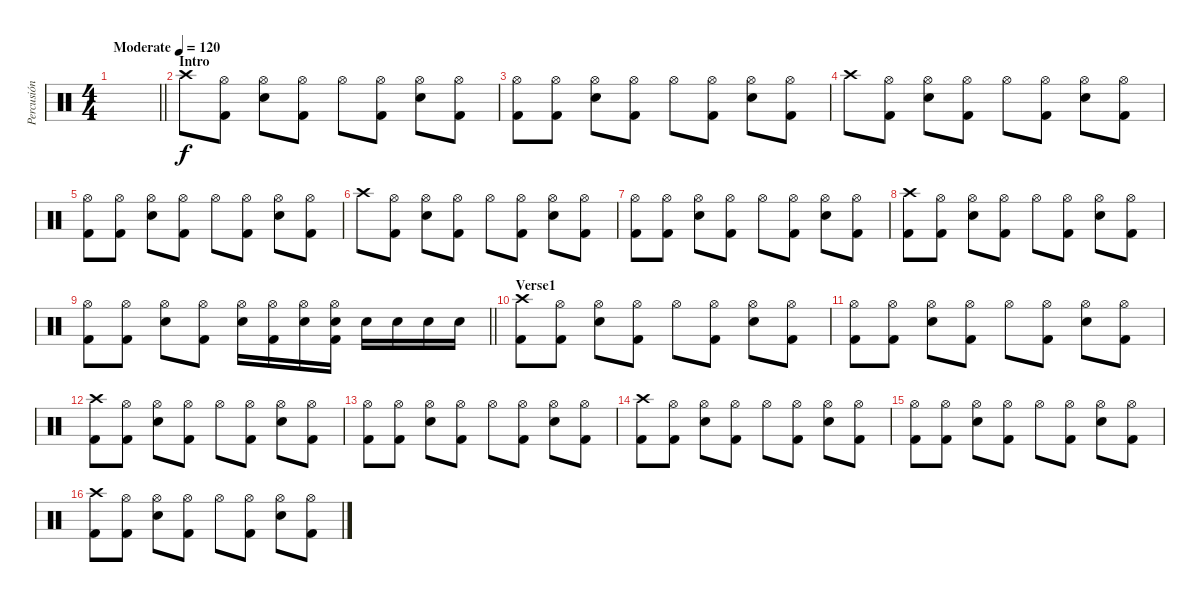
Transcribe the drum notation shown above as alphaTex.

\track ("Percusión" "Percusión") {instrument percussion}
\staff {score}
\articulation defaults
\ts (4 4)
\tempo (120 "Moderate")
\clef neutral
\barLineRight lightlight
\ks c
|
\section ("" "Intro")
"Crash high (hit)".8 ("Hi-Hat (open)" "Kick (hit) 2").8 ("Hi-Hat (open)" "Snare (hit) 2").8 ("Hi-Hat (open)" "Kick (hit) 2").8 "Hi-Hat (open)".8 ("Hi-Hat (open)" "Kick (hit) 2").8 ("Hi-Hat (open)" "Snare (hit) 2").8 ("Hi-Hat (open)" "Kick (hit) 2").8 |
("Hi-Hat (open)" "Kick (hit) 2").8 ("Hi-Hat (open)" "Kick (hit) 2").8 ("Hi-Hat (open)" "Snare (hit) 2").8 ("Hi-Hat (open)" "Kick (hit) 2").8 "Hi-Hat (open)".8 ("Hi-Hat (open)" "Kick (hit) 2").8 ("Hi-Hat (open)" "Snare (hit) 2").8 ("Hi-Hat (open)" "Kick (hit) 2").8 |
"Crash high (hit)".8 ("Hi-Hat (open)" "Kick (hit) 2").8 ("Hi-Hat (open)" "Snare (hit) 2").8 ("Hi-Hat (open)" "Kick (hit) 2").8 "Hi-Hat (open)".8 ("Hi-Hat (open)" "Kick (hit) 2").8 ("Hi-Hat (open)" "Snare (hit) 2").8 ("Hi-Hat (open)" "Kick (hit) 2").8 |
("Hi-Hat (open)" "Kick (hit) 2").8 ("Hi-Hat (open)" "Kick (hit) 2").8 ("Hi-Hat (open)" "Snare (hit) 2").8 ("Hi-Hat (open)" "Kick (hit) 2").8 "Hi-Hat (open)".8 ("Hi-Hat (open)" "Kick (hit) 2").8 ("Hi-Hat (open)" "Snare (hit) 2").8 ("Hi-Hat (open)" "Kick (hit) 2").8 |
"Crash high (hit)".8 ("Hi-Hat (open)" "Kick (hit) 2").8 ("Hi-Hat (open)" "Snare (hit) 2").8 ("Hi-Hat (open)" "Kick (hit) 2").8 "Hi-Hat (open)".8 ("Hi-Hat (open)" "Kick (hit) 2").8 ("Hi-Hat (open)" "Snare (hit) 2").8 ("Hi-Hat (open)" "Kick (hit) 2").8 |
("Hi-Hat (open)" "Kick (hit) 2").8 ("Hi-Hat (open)" "Kick (hit) 2").8 ("Hi-Hat (open)" "Snare (hit) 2").8 ("Hi-Hat (open)" "Kick (hit) 2").8 "Hi-Hat (open)".8 ("Hi-Hat (open)" "Kick (hit) 2").8 ("Hi-Hat (open)" "Snare (hit) 2").8 ("Hi-Hat (open)" "Kick (hit) 2").8 |
("Crash high (hit)" "Kick (hit) 2").8 ("Hi-Hat (open)" "Kick (hit) 2").8 ("Hi-Hat (open)" "Snare (hit) 2").8 ("Hi-Hat (open)" "Kick (hit) 2").8 "Hi-Hat (open)".8 ("Hi-Hat (open)" "Kick (hit) 2").8 ("Hi-Hat (open)" "Snare (hit) 2").8 ("Hi-Hat (open)" "Kick (hit) 2").8 |
\barLineRight lightlight
("Hi-Hat (open)" "Kick (hit) 2").8 ("Hi-Hat (open)" "Kick (hit) 2").8 ("Hi-Hat (open)" "Snare (hit) 2").8 ("Hi-Hat (open)" "Kick (hit) 2").8 ("Hi-Hat (open)" "Snare (hit) 2").16 ("Hi-Hat (open)" "Kick (hit) 2").16 ("Hi-Hat (open)" "Snare (hit) 2").16 ("Hi-Hat (open)" "Snare (hit) 2" "Kick (hit) 2").16 "Snare (hit) 2".16 "Snare (hit) 2".16 "Snare (hit) 2".16 "Snare (hit) 2".16 |
\section ("" "Verse1")
("Crash high (hit)" "Kick (hit) 2").8 ("Hi-Hat (open)" "Kick (hit) 2").8 ("Hi-Hat (open)" "Snare (hit) 2").8 ("Hi-Hat (open)" "Kick (hit) 2").8 "Hi-Hat (open)".8 ("Hi-Hat (open)" "Kick (hit) 2").8 ("Hi-Hat (open)" "Snare (hit) 2").8 ("Hi-Hat (open)" "Kick (hit) 2").8 |
("Hi-Hat (open)" "Kick (hit) 2").8 ("Hi-Hat (open)" "Kick (hit) 2").8 ("Hi-Hat (open)" "Snare (hit) 2").8 ("Hi-Hat (open)" "Kick (hit) 2").8 "Hi-Hat (open)".8 ("Hi-Hat (open)" "Kick (hit) 2").8 ("Hi-Hat (open)" "Snare (hit) 2").8 ("Hi-Hat (open)" "Kick (hit) 2").8 |
("Crash high (hit)" "Kick (hit) 2").8 ("Hi-Hat (open)" "Kick (hit) 2").8 ("Hi-Hat (open)" "Snare (hit) 2").8 ("Hi-Hat (open)" "Kick (hit) 2").8 "Hi-Hat (open)".8 ("Hi-Hat (open)" "Kick (hit) 2").8 ("Hi-Hat (open)" "Snare (hit) 2").8 ("Hi-Hat (open)" "Kick (hit) 2").8 |
("Hi-Hat (open)" "Kick (hit) 2").8 ("Hi-Hat (open)" "Kick (hit) 2").8 ("Hi-Hat (open)" "Snare (hit) 2").8 ("Hi-Hat (open)" "Kick (hit) 2").8 "Hi-Hat (open)".8 ("Hi-Hat (open)" "Kick (hit) 2").8 ("Hi-Hat (open)" "Snare (hit) 2").8 ("Hi-Hat (open)" "Kick (hit) 2").8 |
("Crash high (hit)" "Kick (hit) 2").8 ("Hi-Hat (open)" "Kick (hit) 2").8 ("Hi-Hat (open)" "Snare (hit) 2").8 ("Hi-Hat (open)" "Kick (hit) 2").8 "Hi-Hat (open)".8 ("Hi-Hat (open)" "Kick (hit) 2").8 ("Hi-Hat (open)" "Snare (hit) 2").8 ("Hi-Hat (open)" "Kick (hit) 2").8 |
("Hi-Hat (open)" "Kick (hit) 2").8 ("Hi-Hat (open)" "Kick (hit) 2").8 ("Hi-Hat (open)" "Snare (hit) 2").8 ("Hi-Hat (open)" "Kick (hit) 2").8 "Hi-Hat (open)".8 ("Hi-Hat (open)" "Kick (hit) 2").8 ("Hi-Hat (open)" "Snare (hit) 2").8 ("Hi-Hat (open)" "Kick (hit) 2").8 |
("Crash high (hit)" "Kick (hit) 2").8 ("Hi-Hat (open)" "Kick (hit) 2").8 ("Hi-Hat (open)" "Snare (hit) 2").8 ("Hi-Hat (open)" "Kick (hit) 2").8 "Hi-Hat (open)".8 ("Hi-Hat (open)" "Kick (hit) 2").8 ("Hi-Hat (open)" "Snare (hit) 2").8 ("Hi-Hat (open)" "Kick (hit) 2").8
